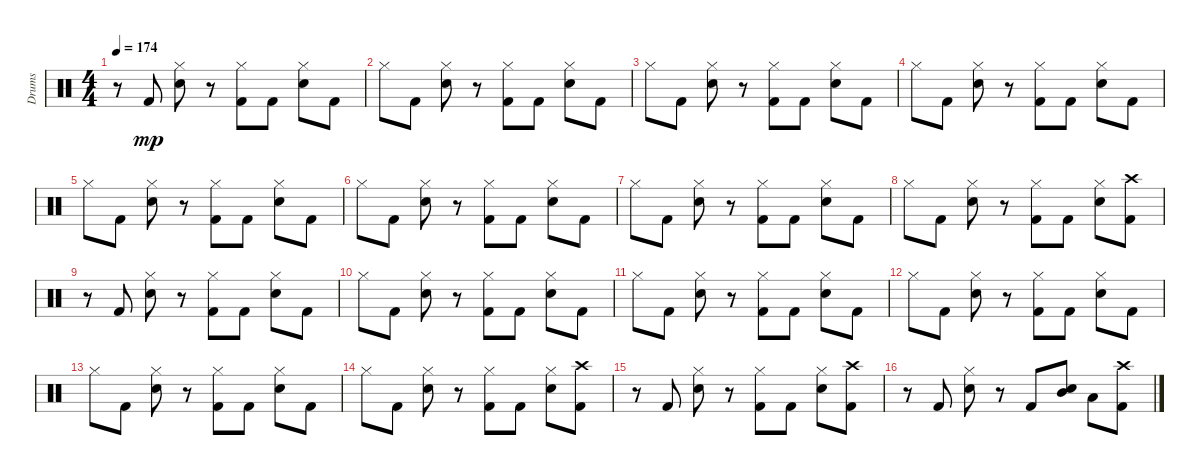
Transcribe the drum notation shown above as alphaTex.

\track ("Drums" "Drums") {instrument percussion}
\staff {score}
\articulation defaults
\ts (4 4)
\tempo 174
\clef neutral
\ks c
r.8{dy mp} "Kick (hit) 2".8 ("Hi-Hat (closed)" "Snare (hit) 2").8 r.8 ("Hi-Hat (closed)" "Kick (hit) 2").8 "Kick (hit) 2".8 ("Snare (hit) 2" "Hi-Hat (closed)").8 "Kick (hit) 2".8 |
"Hi-Hat (closed)".8 "Kick (hit) 2".8 ("Hi-Hat (closed)" "Snare (hit) 2").8 r.8 ("Hi-Hat (closed)" "Kick (hit) 2").8 "Kick (hit) 2".8 ("Snare (hit) 2" "Hi-Hat (closed)").8 "Kick (hit) 2".8 |
"Hi-Hat (closed)".8 "Kick (hit) 2".8 ("Hi-Hat (closed)" "Snare (hit) 2").8 r.8 ("Hi-Hat (closed)" "Kick (hit) 2").8 "Kick (hit) 2".8 ("Hi-Hat (closed)" "Snare (hit) 2").8 "Kick (hit) 2".8 |
"Hi-Hat (closed)".8 "Kick (hit) 2".8 ("Snare (hit) 2" "Hi-Hat (closed)").8 r.8 ("Hi-Hat (closed)" "Kick (hit) 2").8 "Kick (hit) 2".8 ("Snare (hit) 2" "Hi-Hat (closed)").8 "Kick (hit) 2".8 |
"Hi-Hat (closed)".8 "Kick (hit) 2".8 ("Hi-Hat (closed)" "Snare (hit) 2").8 r.8 ("Kick (hit) 2" "Hi-Hat (closed)").8 "Kick (hit) 2".8 ("Hi-Hat (closed)" "Snare (hit) 2").8 "Kick (hit) 2".8 |
"Hi-Hat (closed)".8 "Kick (hit) 2".8 ("Snare (hit) 2" "Hi-Hat (closed)").8 r.8 ("Hi-Hat (closed)" "Kick (hit) 2").8 "Kick (hit) 2".8 ("Hi-Hat (closed)" "Snare (hit) 2").8 "Kick (hit) 2".8 |
"Hi-Hat (closed)".8 "Kick (hit) 2".8 ("Hi-Hat (closed)" "Snare (hit) 2").8 r.8 ("Kick (hit) 2" "Hi-Hat (closed)").8 "Kick (hit) 2".8 ("Hi-Hat (closed)" "Snare (hit) 2").8 "Kick (hit) 2".8 |
"Hi-Hat (closed)".8 "Kick (hit) 2".8 ("Hi-Hat (closed)" "Snare (hit) 2").8 r.8 ("Kick (hit) 2" "Hi-Hat (closed)").8 "Kick (hit) 2".8 ("Snare (hit) 2" "Hi-Hat (closed)").8 ("Kick (hit) 2" "Crash high (hit)").8 |
r.8 "Kick (hit) 2".8 ("Snare (hit) 2" "Hi-Hat (closed)").8 r.8 ("Hi-Hat (closed)" "Kick (hit) 2").8 "Kick (hit) 2".8 ("Hi-Hat (closed)" "Snare (hit) 2").8 "Kick (hit) 2".8 |
"Hi-Hat (closed)".8 "Kick (hit) 2".8 ("Hi-Hat (closed)" "Snare (hit) 2").8 r.8 ("Kick (hit) 2" "Hi-Hat (closed)").8 "Kick (hit) 2".8 ("Snare (hit) 2" "Hi-Hat (closed)").8 "Kick (hit) 2".8 |
"Hi-Hat (closed)".8 "Kick (hit) 2".8 ("Hi-Hat (closed)" "Snare (hit) 2").8 r.8 ("Hi-Hat (closed)" "Kick (hit) 2").8 "Kick (hit) 2".8 ("Hi-Hat (closed)" "Snare (hit) 2").8 "Kick (hit) 2".8 |
"Hi-Hat (closed)".8 "Kick (hit) 2".8 ("Hi-Hat (closed)" "Snare (hit) 2").8 r.8 ("Hi-Hat (closed)" "Kick (hit) 2").8 "Kick (hit) 2".8 ("Snare (hit) 2" "Hi-Hat (closed)").8 "Kick (hit) 2".8 |
"Hi-Hat (closed)".8 "Kick (hit) 2".8 ("Hi-Hat (closed)" "Snare (hit) 2").8 r.8 ("Kick (hit) 2" "Hi-Hat (closed)").8 "Kick (hit) 2".8 ("Hi-Hat (closed)" "Snare (hit) 2").8 "Kick (hit) 2".8 |
"Hi-Hat (closed)".8 "Kick (hit) 2".8 ("Hi-Hat (closed)" "Snare (hit) 2").8 r.8 ("Hi-Hat (closed)" "Kick (hit) 2").8 "Kick (hit) 2".8 ("Snare (hit) 2" "Hi-Hat (closed)").8 ("Kick (hit) 2" "Crash high (hit)").8 |
r.8 "Kick (hit) 2".8 ("Hi-Hat (closed)" "Snare (hit) 2").8 r.8 ("Kick (hit) 2" "Hi-Hat (closed)").8 "Kick (hit) 2".8 ("Hi-Hat (closed)" "Snare (hit) 2").8 ("Crash high (hit)" "Kick (hit) 2").8 |
r.8 "Kick (hit) 2".8 ("Hi-Hat (closed)" "Snare (hit) 2").8 r.8 "Kick (hit) 2".8 ("Mid Tom (hit)" "Snare (hit) 2").8 "Low Tom (hit)".8 ("Crash high (hit)" "Kick (hit) 2").8
